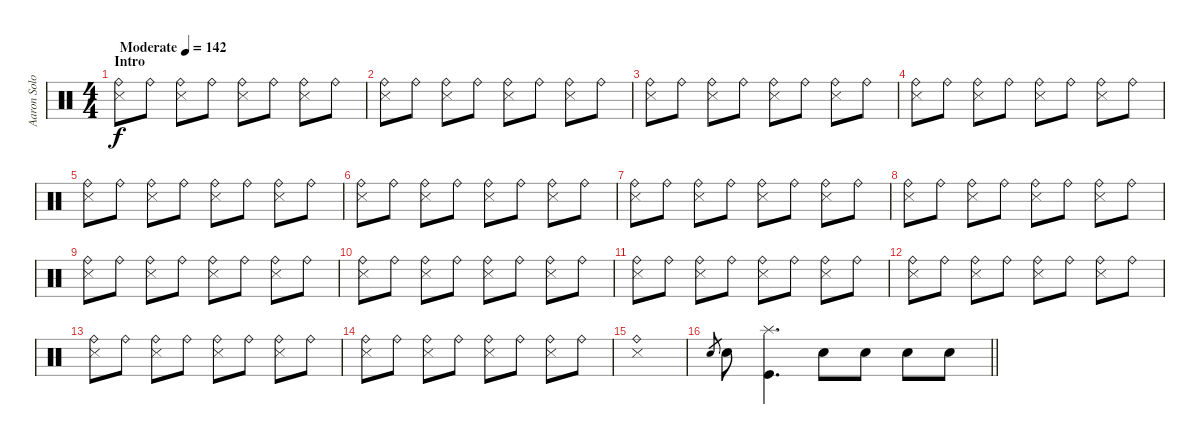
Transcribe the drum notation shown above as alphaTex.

\track ("Aaron Solowoniuk" "Aaron Solo") {instrument percussion}
\staff {score}
\articulation defaults
\ts (4 4)
\section ("" "Intro")
\tempo (142 "Moderate")
\clef neutral
\ks c
("Ride (bell)" "Snare (side stick) 3").8{dy f} "Ride (bell)".8 ("Ride (bell)" "Snare (side stick) 3").8 "Ride (bell)".8 ("Ride (bell)" "Snare (side stick) 3").8 "Ride (bell)".8 ("Ride (bell)" "Snare (side stick) 3").8 "Ride (bell)".8 |
("Ride (bell)" "Snare (side stick) 3").8 "Ride (bell)".8 ("Ride (bell)" "Snare (side stick) 3").8 "Ride (bell)".8 ("Ride (bell)" "Snare (side stick) 3").8 "Ride (bell)".8 ("Ride (bell)" "Snare (side stick) 3").8 "Ride (bell)".8 |
("Ride (bell)" "Snare (side stick) 3").8 "Ride (bell)".8 ("Ride (bell)" "Snare (side stick) 3").8 "Ride (bell)".8 ("Ride (bell)" "Snare (side stick) 3").8 "Ride (bell)".8 ("Ride (bell)" "Snare (side stick) 3").8 "Ride (bell)".8 |
("Ride (bell)" "Snare (side stick) 3").8 "Ride (bell)".8 ("Ride (bell)" "Snare (side stick) 3").8 "Ride (bell)".8 ("Ride (bell)" "Snare (side stick) 3").8 "Ride (bell)".8 ("Ride (bell)" "Snare (side stick) 3").8 "Ride (bell)".8 |
("Ride (bell)" "Snare (side stick) 3").8 "Ride (bell)".8 ("Ride (bell)" "Snare (side stick) 3").8 "Ride (bell)".8 ("Ride (bell)" "Snare (side stick) 3").8 "Ride (bell)".8 ("Ride (bell)" "Snare (side stick) 3").8 "Ride (bell)".8 |
("Ride (bell)" "Snare (side stick) 3").8 "Ride (bell)".8 ("Ride (bell)" "Snare (side stick) 3").8 "Ride (bell)".8 ("Ride (bell)" "Snare (side stick) 3").8 "Ride (bell)".8 ("Ride (bell)" "Snare (side stick) 3").8 "Ride (bell)".8 |
("Ride (bell)" "Snare (side stick) 3").8 "Ride (bell)".8 ("Ride (bell)" "Snare (side stick) 3").8 "Ride (bell)".8 ("Ride (bell)" "Snare (side stick) 3").8 "Ride (bell)".8 ("Ride (bell)" "Snare (side stick) 3").8 "Ride (bell)".8 |
("Ride (bell)" "Snare (side stick) 3").8 "Ride (bell)".8 ("Ride (bell)" "Snare (side stick) 3").8 "Ride (bell)".8 ("Ride (bell)" "Snare (side stick) 3").8 "Ride (bell)".8 ("Ride (bell)" "Snare (side stick) 3").8 "Ride (bell)".8 |
("Ride (bell)" "Snare (side stick) 3").8 "Ride (bell)".8 ("Ride (bell)" "Snare (side stick) 3").8 "Ride (bell)".8 ("Ride (bell)" "Snare (side stick) 3").8 "Ride (bell)".8 ("Ride (bell)" "Snare (side stick) 3").8 "Ride (bell)".8 |
("Ride (bell)" "Snare (side stick) 3").8 "Ride (bell)".8 ("Ride (bell)" "Snare (side stick) 3").8 "Ride (bell)".8 ("Ride (bell)" "Snare (side stick) 3").8 "Ride (bell)".8 ("Ride (bell)" "Snare (side stick) 3").8 "Ride (bell)".8 |
("Ride (bell)" "Snare (side stick) 3").8 "Ride (bell)".8 ("Ride (bell)" "Snare (side stick) 3").8 "Ride (bell)".8 ("Ride (bell)" "Snare (side stick) 3").8 "Ride (bell)".8 ("Ride (bell)" "Snare (side stick) 3").8 "Ride (bell)".8 |
("Ride (bell)" "Snare (side stick) 3").8 "Ride (bell)".8 ("Ride (bell)" "Snare (side stick) 3").8 "Ride (bell)".8 ("Ride (bell)" "Snare (side stick) 3").8 "Ride (bell)".8 ("Ride (bell)" "Snare (side stick) 3").8 "Ride (bell)".8 |
("Ride (bell)" "Snare (side stick) 3").8 "Ride (bell)".8 ("Ride (bell)" "Snare (side stick) 3").8 "Ride (bell)".8 ("Ride (bell)" "Snare (side stick) 3").8 "Ride (bell)".8 ("Ride (bell)" "Snare (side stick) 3").8 "Ride (bell)".8 |
("Ride (bell)" "Snare (side stick) 3").8 "Ride (bell)".8 ("Ride (bell)" "Snare (side stick) 3").8 "Ride (bell)".8 ("Ride (bell)" "Snare (side stick) 3").8 "Ride (bell)".8 ("Ride (bell)" "Snare (side stick) 3").8 "Ride (bell)".8 |
("Ride (bell)" "Snare (side stick) 3").1 |
\barLineRight lightlight "Electric Snare (hit)".8{gr} "Electric Snare (hit)".8
("Splash (hit)" "Kick (hit)").4{d} "Electric Snare (hit)".8 "Electric Snare (hit)".8 "Electric Snare (hit)".8 "Electric Snare (hit)".8
